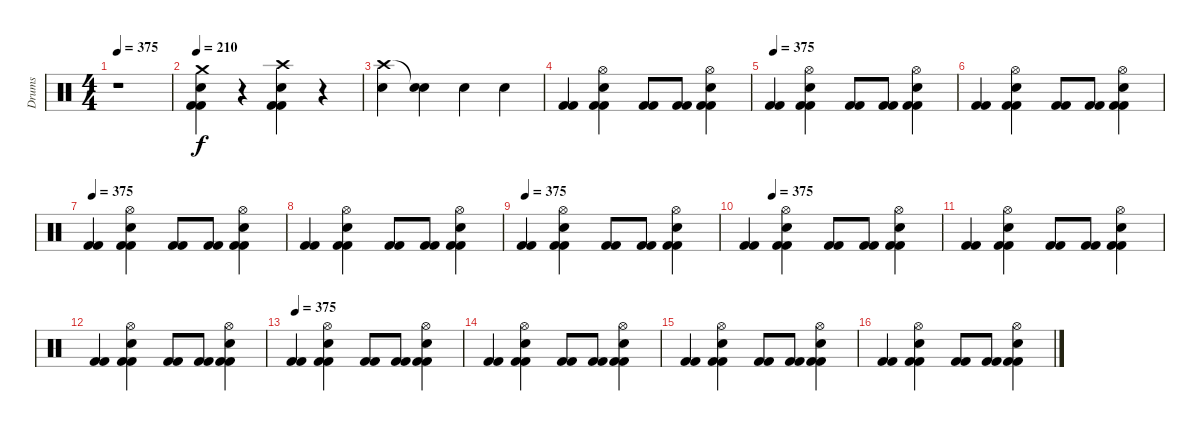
\track ("Drums" "Drums") {instrument percussion}
\staff {score}
\articulation defaults
\ts (4 4)
\tempo 375
\clef neutral
\ks c
r.1{dy f} |
\tempo 210
("Crash medium (hit)" "Snare (hit) 2" "Kick (hit) 2" "Kick (hit) 2").4 r.4 ("Crash high (hit)" "Snare (hit) 2" "Kick (hit) 2" "Kick (hit) 2").4 r.4 |
("Crash high (hit)" "Snare (hit) 2").4 ("Snare (hit)"{t} "Snare (hit) 2").4 "Snare (hit) 2".4 "Snare (hit) 2".4 |
("Kick (hit) 2" "Kick (hit) 2").4 ("Hi-Hat (open)" "Snare (hit) 2" "Kick (hit) 2" "Kick (hit) 2").4 ("Kick (hit) 2" "Kick (hit) 2").8 ("Kick (hit) 2" "Kick (hit) 2").8 ("Hi-Hat (open)" "Snare (hit) 2" "Kick (hit) 2" "Kick (hit) 2").4 |
\tempo 375
("Kick (hit) 2" "Kick (hit) 2").4 ("Hi-Hat (open)" "Snare (hit) 2" "Kick (hit) 2" "Kick (hit) 2").4 ("Kick (hit) 2" "Kick (hit) 2").8 ("Kick (hit) 2" "Kick (hit) 2").8 ("Hi-Hat (open)" "Snare (hit) 2" "Kick (hit) 2" "Kick (hit) 2").4 |
("Kick (hit) 2" "Kick (hit) 2").4 ("Hi-Hat (open)" "Snare (hit) 2" "Kick (hit) 2" "Kick (hit) 2").4 ("Kick (hit) 2" "Kick (hit) 2").8 ("Kick (hit) 2" "Kick (hit) 2").8 ("Hi-Hat (open)" "Snare (hit) 2" "Kick (hit) 2" "Kick (hit) 2").4 |
\tempo 375
("Kick (hit) 2" "Kick (hit) 2").4 ("Hi-Hat (open)" "Snare (hit) 2" "Kick (hit) 2" "Kick (hit) 2").4 ("Kick (hit) 2" "Kick (hit) 2").8 ("Kick (hit) 2" "Kick (hit) 2").8 ("Hi-Hat (open)" "Snare (hit) 2" "Kick (hit) 2" "Kick (hit) 2").4 |
("Kick (hit) 2" "Kick (hit) 2").4 ("Hi-Hat (open)" "Snare (hit) 2" "Kick (hit) 2" "Kick (hit) 2").4 ("Kick (hit) 2" "Kick (hit) 2").8 ("Kick (hit) 2" "Kick (hit) 2").8 ("Hi-Hat (open)" "Snare (hit) 2" "Kick (hit) 2" "Kick (hit) 2").4 |
\tempo 375
("Kick (hit) 2" "Kick (hit) 2").4 ("Hi-Hat (open)" "Snare (hit) 2" "Kick (hit) 2" "Kick (hit) 2").4 ("Kick (hit) 2" "Kick (hit) 2").8 ("Kick (hit) 2" "Kick (hit) 2").8 ("Hi-Hat (open)" "Snare (hit) 2" "Kick (hit) 2" "Kick (hit) 2").4 |
\tempo (375 0.125)
("Kick (hit) 2" "Kick (hit) 2").4 ("Hi-Hat (open)" "Snare (hit) 2" "Kick (hit) 2" "Kick (hit) 2").4 ("Kick (hit) 2" "Kick (hit) 2").8 ("Kick (hit) 2" "Kick (hit) 2").8 ("Hi-Hat (open)" "Snare (hit) 2" "Kick (hit) 2" "Kick (hit) 2").4 |
("Kick (hit) 2" "Kick (hit) 2").4 ("Hi-Hat (open)" "Snare (hit) 2" "Kick (hit) 2" "Kick (hit) 2").4 ("Kick (hit) 2" "Kick (hit) 2").8 ("Kick (hit) 2" "Kick (hit) 2").8 ("Hi-Hat (open)" "Snare (hit) 2" "Kick (hit) 2" "Kick (hit) 2").4 |
("Kick (hit) 2" "Kick (hit) 2").4 ("Hi-Hat (open)" "Snare (hit) 2" "Kick (hit) 2" "Kick (hit) 2").4 ("Kick (hit) 2" "Kick (hit) 2").8 ("Kick (hit) 2" "Kick (hit) 2").8 ("Hi-Hat (open)" "Snare (hit) 2" "Kick (hit) 2" "Kick (hit) 2").4 |
\tempo 375
("Kick (hit) 2" "Kick (hit) 2").4 ("Hi-Hat (open)" "Snare (hit) 2" "Kick (hit) 2" "Kick (hit) 2").4 ("Kick (hit) 2" "Kick (hit) 2").8 ("Kick (hit) 2" "Kick (hit) 2").8 ("Hi-Hat (open)" "Snare (hit) 2" "Kick (hit) 2" "Kick (hit) 2").4 |
("Kick (hit) 2" "Kick (hit) 2").4 ("Hi-Hat (open)" "Snare (hit) 2" "Kick (hit) 2" "Kick (hit) 2").4 ("Kick (hit) 2" "Kick (hit) 2").8 ("Kick (hit) 2" "Kick (hit) 2").8 ("Hi-Hat (open)" "Snare (hit) 2" "Kick (hit) 2" "Kick (hit) 2").4 |
("Kick (hit) 2" "Kick (hit) 2").4 ("Hi-Hat (open)" "Snare (hit) 2" "Kick (hit) 2" "Kick (hit) 2").4 ("Kick (hit) 2" "Kick (hit) 2").8 ("Kick (hit) 2" "Kick (hit) 2").8 ("Hi-Hat (open)" "Snare (hit) 2" "Kick (hit) 2" "Kick (hit) 2").4 |
("Kick (hit) 2" "Kick (hit) 2").4 ("Hi-Hat (open)" "Snare (hit) 2" "Kick (hit) 2" "Kick (hit) 2").4 ("Kick (hit) 2" "Kick (hit) 2").8 ("Kick (hit) 2" "Kick (hit) 2").8 ("Hi-Hat (open)" "Snare (hit) 2" "Kick (hit) 2" "Kick (hit) 2").4
